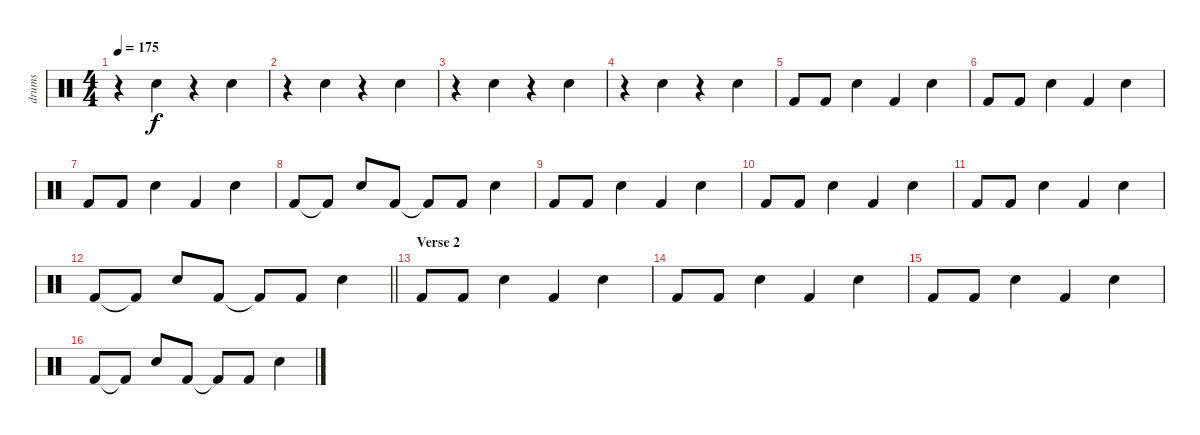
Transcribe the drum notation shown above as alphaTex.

\track ("drums" "drums") {instrument percussion}
\staff {score}
\articulation defaults
\ts (4 4)
\tempo 175
\clef neutral
\ks c
r.4{dy f} "Snare (hit) 2".4 r.4 "Snare (hit) 2".4 |
r.4 "Snare (hit) 2".4 r.4 "Snare (hit) 2".4 |
r.4 "Snare (hit) 2".4 r.4 "Snare (hit) 2".4 |
r.4 "Snare (hit) 2".4 r.4 "Snare (hit) 2".4 |
"Kick (hit) 2".8 "Kick (hit) 2".8 "Snare (hit) 2".4 "Kick (hit) 2".4 "Snare (hit) 2".4 |
"Kick (hit) 2".8 "Kick (hit) 2".8 "Snare (hit) 2".4 "Kick (hit) 2".4 "Snare (hit) 2".4 |
"Kick (hit) 2".8 "Kick (hit) 2".8 "Snare (hit) 2".4 "Kick (hit) 2".4 "Snare (hit) 2".4 |
"Kick (hit) 2".8 "Kick (hit) 2"{t}.8 "Snare (hit) 2".8 "Kick (hit) 2".8 "Kick (hit) 2"{t}.8 "Kick (hit) 2".8 "Snare (hit) 2".4 |
"Kick (hit) 2".8 "Kick (hit) 2".8 "Snare (hit) 2".4 "Kick (hit) 2".4 "Snare (hit) 2".4 |
"Kick (hit) 2".8 "Kick (hit) 2".8 "Snare (hit) 2".4 "Kick (hit) 2".4 "Snare (hit) 2".4 |
"Kick (hit) 2".8 "Kick (hit) 2".8 "Snare (hit) 2".4 "Kick (hit) 2".4 "Snare (hit) 2".4 |
\barLineRight lightlight "Kick (hit) 2".8 "Kick (hit) 2"{t}.8 "Snare (hit) 2".8 "Kick (hit) 2".8 "Kick (hit) 2"{t}.8 "Kick (hit) 2".8 "Snare (hit) 2".4
|
\section ("" "Verse 2")
"Kick (hit) 2".8 "Kick (hit) 2".8 "Snare (hit) 2".4 "Kick (hit) 2".4 "Snare (hit) 2".4 |
"Kick (hit) 2".8 "Kick (hit) 2".8 "Snare (hit) 2".4 "Kick (hit) 2".4 "Snare (hit) 2".4 |
"Kick (hit) 2".8 "Kick (hit) 2".8 "Snare (hit) 2".4 "Kick (hit) 2".4 "Snare (hit) 2".4 |
"Kick (hit) 2".8 "Kick (hit) 2"{t}.8 "Snare (hit) 2".8 "Kick (hit) 2".8 "Kick (hit) 2"{t}.8 "Kick (hit) 2".8 "Snare (hit) 2".4
